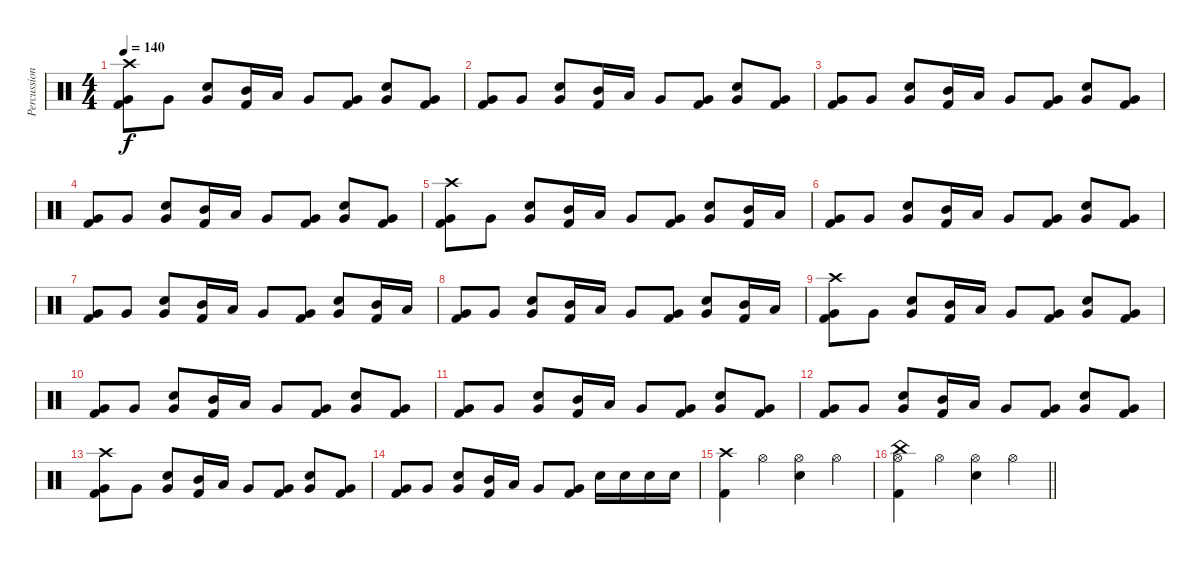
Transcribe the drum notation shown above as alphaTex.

\track ("Percussion" "Percussion") {instrument percussion}
\staff {score}
\articulation defaults
\ts (4 4)
\tempo 140
\clef neutral
\ks c
("Crash high (hit)" "Very Low Tom (hit)" "Kick (hit) 2").8{dy f} "Very Low Tom (hit)".8 ("Very Low Tom (hit)" "Electric Snare (hit)").8 ("Mid Tom (hit)" "Kick (hit) 2").16 "Low Tom (hit)".16 "Very Low Tom (hit)".8 ("Very Low Tom (hit)" "Kick (hit) 2").8 ("Very Low Tom (hit)" "Electric Snare (hit)").8 ("Very Low Tom (hit)" "Kick (hit) 2").8 |
("Very Low Tom (hit)" "Kick (hit) 2").8 "Very Low Tom (hit)".8 ("Very Low Tom (hit)" "Electric Snare (hit)").8 ("Mid Tom (hit)" "Kick (hit) 2").16 "Low Tom (hit)".16 "Very Low Tom (hit)".8 ("Very Low Tom (hit)" "Kick (hit) 2").8 ("Very Low Tom (hit)" "Electric Snare (hit)").8 ("Very Low Tom (hit)" "Kick (hit) 2").8 |
("Very Low Tom (hit)" "Kick (hit) 2").8 "Very Low Tom (hit)".8 ("Very Low Tom (hit)" "Electric Snare (hit)").8 ("Mid Tom (hit)" "Kick (hit) 2").16 "Low Tom (hit)".16 "Very Low Tom (hit)".8 ("Very Low Tom (hit)" "Kick (hit) 2").8 ("Very Low Tom (hit)" "Electric Snare (hit)").8 ("Very Low Tom (hit)" "Kick (hit) 2").8 |
("Very Low Tom (hit)" "Kick (hit) 2").8 "Very Low Tom (hit)".8 ("Very Low Tom (hit)" "Electric Snare (hit)").8 ("Mid Tom (hit)" "Kick (hit) 2").16 "Low Tom (hit)".16 "Very Low Tom (hit)".8 ("Very Low Tom (hit)" "Kick (hit) 2").8 ("Very Low Tom (hit)" "Electric Snare (hit)").8 ("Very Low Tom (hit)" "Kick (hit) 2").8 |
("Crash high (hit)" "Very Low Tom (hit)" "Kick (hit) 2").8 "Very Low Tom (hit)".8 ("Very Low Tom (hit)" "Electric Snare (hit)").8 ("Mid Tom (hit)" "Kick (hit) 2").16 "Low Tom (hit)".16 "Very Low Tom (hit)".8 ("Very Low Tom (hit)" "Kick (hit) 2").8 ("Very Low Tom (hit)" "Electric Snare (hit)").8 ("Mid Tom (hit)" "Kick (hit) 2").16 "Low Tom (hit)".16 |
("Very Low Tom (hit)" "Kick (hit) 2").8 "Very Low Tom (hit)".8 ("Very Low Tom (hit)" "Electric Snare (hit)").8 ("Mid Tom (hit)" "Kick (hit) 2").16 "Low Tom (hit)".16 "Very Low Tom (hit)".8 ("Very Low Tom (hit)" "Kick (hit) 2").8 ("Very Low Tom (hit)" "Electric Snare (hit)").8 ("Very Low Tom (hit)" "Kick (hit) 2").8 |
("Very Low Tom (hit)" "Kick (hit) 2").8 "Very Low Tom (hit)".8 ("Very Low Tom (hit)" "Electric Snare (hit)").8 ("Mid Tom (hit)" "Kick (hit) 2").16 "Low Tom (hit)".16 "Very Low Tom (hit)".8 ("Very Low Tom (hit)" "Kick (hit) 2").8 ("Very Low Tom (hit)" "Electric Snare (hit)").8 ("Mid Tom (hit)" "Kick (hit) 2").16 "Low Tom (hit)".16 |
("Very Low Tom (hit)" "Kick (hit) 2").8 "Very Low Tom (hit)".8 ("Very Low Tom (hit)" "Electric Snare (hit)").8 ("Mid Tom (hit)" "Kick (hit) 2").16 "Low Tom (hit)".16 "Very Low Tom (hit)".8 ("Very Low Tom (hit)" "Kick (hit) 2").8 ("Very Low Tom (hit)" "Electric Snare (hit)").8 ("Mid Tom (hit)" "Kick (hit) 2").16 "Low Tom (hit)".16 |
("Crash high (hit)" "Very Low Tom (hit)" "Kick (hit) 2").8 "Very Low Tom (hit)".8 ("Very Low Tom (hit)" "Electric Snare (hit)").8 ("Mid Tom (hit)" "Kick (hit) 2").16 "Low Tom (hit)".16 "Very Low Tom (hit)".8 ("Very Low Tom (hit)" "Kick (hit) 2").8 ("Very Low Tom (hit)" "Electric Snare (hit)").8 ("Very Low Tom (hit)" "Kick (hit) 2").8 |
("Very Low Tom (hit)" "Kick (hit) 2").8 "Very Low Tom (hit)".8 ("Very Low Tom (hit)" "Electric Snare (hit)").8 ("Mid Tom (hit)" "Kick (hit) 2").16 "Low Tom (hit)".16 "Very Low Tom (hit)".8 ("Very Low Tom (hit)" "Kick (hit) 2").8 ("Very Low Tom (hit)" "Electric Snare (hit)").8 ("Very Low Tom (hit)" "Kick (hit) 2").8 |
("Very Low Tom (hit)" "Kick (hit) 2").8 "Very Low Tom (hit)".8 ("Very Low Tom (hit)" "Electric Snare (hit)").8 ("Mid Tom (hit)" "Kick (hit) 2").16 "Low Tom (hit)".16 "Very Low Tom (hit)".8 ("Very Low Tom (hit)" "Kick (hit) 2").8 ("Very Low Tom (hit)" "Electric Snare (hit)").8 ("Very Low Tom (hit)" "Kick (hit) 2").8 |
("Very Low Tom (hit)" "Kick (hit) 2").8 "Very Low Tom (hit)".8 ("Very Low Tom (hit)" "Electric Snare (hit)").8 ("Mid Tom (hit)" "Kick (hit) 2").16 "Low Tom (hit)".16 "Very Low Tom (hit)".8 ("Very Low Tom (hit)" "Kick (hit) 2").8 ("Very Low Tom (hit)" "Electric Snare (hit)").8 ("Very Low Tom (hit)" "Kick (hit) 2").8 |
("Crash high (hit)" "Very Low Tom (hit)" "Kick (hit) 2").8 "Very Low Tom (hit)".8 ("Very Low Tom (hit)" "Electric Snare (hit)").8 ("Mid Tom (hit)" "Kick (hit) 2").16 "Low Tom (hit)".16 "Very Low Tom (hit)".8 ("Very Low Tom (hit)" "Kick (hit) 2").8 ("Very Low Tom (hit)" "Electric Snare (hit)").8 ("Very Low Tom (hit)" "Kick (hit) 2").8 |
("Very Low Tom (hit)" "Kick (hit) 2").8 "Very Low Tom (hit)".8 ("Very Low Tom (hit)" "Electric Snare (hit)").8 ("Mid Tom (hit)" "Kick (hit) 2").16 "Low Tom (hit)".16 "Very Low Tom (hit)".8 ("Very Low Tom (hit)" "Kick (hit) 2").8 "Electric Snare (hit)".16 "Electric Snare (hit)".16 "Electric Snare (hit)".16 "Electric Snare (hit)".16 |
("Crash high (hit)" "Kick (hit) 2").4 "Hi-Hat (open)".4 ("Hi-Hat (open)" "Electric Snare (hit)").4 "Hi-Hat (open)".4 |
\barLineRight lightlight
("China (hit)" "Hi-Hat (open)" "Kick (hit) 2").4 "Hi-Hat (open)".4 ("Hi-Hat (open)" "Electric Snare (hit)").4 "Hi-Hat (open)".4
